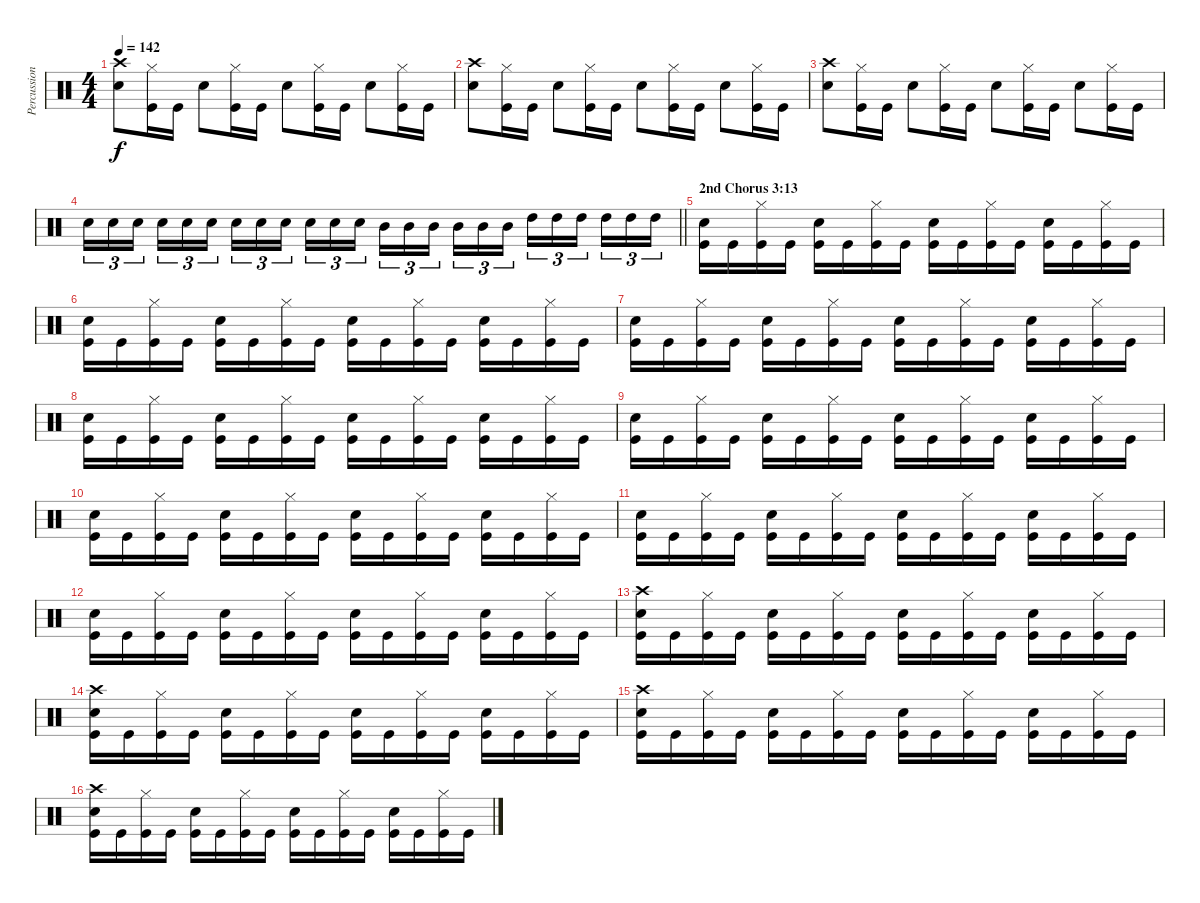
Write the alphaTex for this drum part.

\track ("Percussion" "Percussion") {instrument percussion}
\staff {score}
\articulation defaults
\ts (4 4)
\tempo 142
\clef neutral
\ks c
("Crash high (hit)" "Snare (hit) 2").8{dy f} ("Hi-Hat (closed)" "Kick (hit)").16 "Kick (hit)".16 "Snare (hit) 2".8 ("Hi-Hat (closed)" "Kick (hit)").16 "Kick (hit)".16 "Snare (hit) 2".8 ("Hi-Hat (closed)" "Kick (hit)").16 "Kick (hit)".16 "Snare (hit) 2".8 ("Hi-Hat (closed)" "Kick (hit)").16 "Kick (hit)".16 |
("Crash high (hit)" "Snare (hit) 2").8 ("Hi-Hat (closed)" "Kick (hit)").16 "Kick (hit)".16 "Snare (hit) 2".8 ("Hi-Hat (closed)" "Kick (hit)").16 "Kick (hit)".16 "Snare (hit) 2".8 ("Hi-Hat (closed)" "Kick (hit)").16 "Kick (hit)".16 "Snare (hit) 2".8 ("Hi-Hat (closed)" "Kick (hit)").16 "Kick (hit)".16 |
("Crash high (hit)" "Snare (hit) 2").8 ("Hi-Hat (closed)" "Kick (hit)").16 "Kick (hit)".16 "Snare (hit) 2".8 ("Hi-Hat (closed)" "Kick (hit)").16 "Kick (hit)".16 "Snare (hit) 2".8 ("Hi-Hat (closed)" "Kick (hit)").16 "Kick (hit)".16 "Snare (hit) 2".8 ("Hi-Hat (closed)" "Kick (hit)").16 "Kick (hit)".16 |
\barLineRight lightlight "Snare (hit) 2".16{tu (3 2)} "Snare (hit) 2".16{tu (3 2)} "Snare (hit) 2".16{tu (3 2) beam splitsecondary} "Snare (hit) 2".16{tu (3 2)} "Snare (hit) 2".16{tu (3 2)} "Snare (hit) 2".16{tu (3 2)} "Snare (hit) 2".16{tu (3 2)} "Snare (hit) 2".16{tu (3 2)} "Snare (hit) 2".16{tu (3 2) beam splitsecondary} "Snare (hit) 2".16{tu (3 2)} "Snare (hit) 2".16{tu (3 2)} "Snare (hit) 2".16{tu (3 2)} "Mid Tom (hit)".16{tu (3 2)} "Mid Tom (hit)".16{tu (3 2)} "Mid Tom (hit)".16{tu (3 2) beam splitsecondary} "Mid Tom (hit)".16{tu (3 2)} "Mid Tom (hit)".16{tu (3 2)} "Mid Tom (hit)".16{tu (3 2)} "High Tom (hit)".16{tu (3 2)} "High Tom (hit)".16{tu (3 2)} "High Tom (hit)".16{tu (3 2) beam splitsecondary} "High Tom (hit)".16{tu (3 2)} "High Tom (hit)".16{tu (3 2)} "High Tom (hit)".16{tu (3 2)}
|
\section ("" "2nd Chorus 3:13")
("Snare (hit) 2" "Kick (hit)").16 "Kick (hit)".16 ("Hi-Hat (closed)" "Kick (hit)").16 "Kick (hit)".16 ("Snare (hit) 2" "Kick (hit)").16 "Kick (hit)".16 ("Hi-Hat (closed)" "Kick (hit)").16 "Kick (hit)".16 ("Snare (hit) 2" "Kick (hit)").16 "Kick (hit)".16 ("Hi-Hat (closed)" "Kick (hit)").16 "Kick (hit)".16 ("Snare (hit) 2" "Kick (hit)").16 "Kick (hit)".16 ("Hi-Hat (closed)" "Kick (hit)").16 "Kick (hit)".16 |
("Snare (hit) 2" "Kick (hit)").16 "Kick (hit)".16 ("Hi-Hat (closed)" "Kick (hit)").16 "Kick (hit)".16 ("Snare (hit) 2" "Kick (hit)").16 "Kick (hit)".16 ("Hi-Hat (closed)" "Kick (hit)").16 "Kick (hit)".16 ("Snare (hit) 2" "Kick (hit)").16 "Kick (hit)".16 ("Hi-Hat (closed)" "Kick (hit)").16 "Kick (hit)".16 ("Snare (hit) 2" "Kick (hit)").16 "Kick (hit)".16 ("Hi-Hat (closed)" "Kick (hit)").16 "Kick (hit)".16 |
("Snare (hit) 2" "Kick (hit)").16 "Kick (hit)".16 ("Hi-Hat (closed)" "Kick (hit)").16 "Kick (hit)".16 ("Snare (hit) 2" "Kick (hit)").16 "Kick (hit)".16 ("Hi-Hat (closed)" "Kick (hit)").16 "Kick (hit)".16 ("Snare (hit) 2" "Kick (hit)").16 "Kick (hit)".16 ("Hi-Hat (closed)" "Kick (hit)").16 "Kick (hit)".16 ("Snare (hit) 2" "Kick (hit)").16 "Kick (hit)".16 ("Hi-Hat (closed)" "Kick (hit)").16 "Kick (hit)".16 |
("Snare (hit) 2" "Kick (hit)").16 "Kick (hit)".16 ("Hi-Hat (closed)" "Kick (hit)").16 "Kick (hit)".16 ("Snare (hit) 2" "Kick (hit)").16 "Kick (hit)".16 ("Hi-Hat (closed)" "Kick (hit)").16 "Kick (hit)".16 ("Snare (hit) 2" "Kick (hit)").16 "Kick (hit)".16 ("Hi-Hat (closed)" "Kick (hit)").16 "Kick (hit)".16 ("Snare (hit) 2" "Kick (hit)").16 "Kick (hit)".16 ("Hi-Hat (closed)" "Kick (hit)").16 "Kick (hit)".16 |
("Snare (hit) 2" "Kick (hit)").16 "Kick (hit)".16 ("Hi-Hat (closed)" "Kick (hit)").16 "Kick (hit)".16 ("Snare (hit) 2" "Kick (hit)").16 "Kick (hit)".16 ("Hi-Hat (closed)" "Kick (hit)").16 "Kick (hit)".16 ("Snare (hit) 2" "Kick (hit)").16 "Kick (hit)".16 ("Hi-Hat (closed)" "Kick (hit)").16 "Kick (hit)".16 ("Snare (hit) 2" "Kick (hit)").16 "Kick (hit)".16 ("Hi-Hat (closed)" "Kick (hit)").16 "Kick (hit)".16 |
("Snare (hit) 2" "Kick (hit)").16 "Kick (hit)".16 ("Hi-Hat (closed)" "Kick (hit)").16 "Kick (hit)".16 ("Snare (hit) 2" "Kick (hit)").16 "Kick (hit)".16 ("Hi-Hat (closed)" "Kick (hit)").16 "Kick (hit)".16 ("Snare (hit) 2" "Kick (hit)").16 "Kick (hit)".16 ("Hi-Hat (closed)" "Kick (hit)").16 "Kick (hit)".16 ("Snare (hit) 2" "Kick (hit)").16 "Kick (hit)".16 ("Hi-Hat (closed)" "Kick (hit)").16 "Kick (hit)".16 |
("Snare (hit) 2" "Kick (hit)").16 "Kick (hit)".16 ("Hi-Hat (closed)" "Kick (hit)").16 "Kick (hit)".16 ("Snare (hit) 2" "Kick (hit)").16 "Kick (hit)".16 ("Hi-Hat (closed)" "Kick (hit)").16 "Kick (hit)".16 ("Snare (hit) 2" "Kick (hit)").16 "Kick (hit)".16 ("Hi-Hat (closed)" "Kick (hit)").16 "Kick (hit)".16 ("Snare (hit) 2" "Kick (hit)").16 "Kick (hit)".16 ("Hi-Hat (closed)" "Kick (hit)").16 "Kick (hit)".16 |
("Snare (hit) 2" "Kick (hit)").16 "Kick (hit)".16 ("Hi-Hat (closed)" "Kick (hit)").16 "Kick (hit)".16 ("Snare (hit) 2" "Kick (hit)").16 "Kick (hit)".16 ("Hi-Hat (closed)" "Kick (hit)").16 "Kick (hit)".16 ("Snare (hit) 2" "Kick (hit)").16 "Kick (hit)".16 ("Hi-Hat (closed)" "Kick (hit)").16 "Kick (hit)".16 ("Snare (hit) 2" "Kick (hit)").16 "Kick (hit)".16 ("Hi-Hat (closed)" "Kick (hit)").16 "Kick (hit)".16 |
("Crash high (hit)" "Snare (hit) 2" "Kick (hit)").16 "Kick (hit)".16 ("Hi-Hat (closed)" "Kick (hit)").16 "Kick (hit)".16 ("Snare (hit) 2" "Kick (hit)").16 "Kick (hit)".16 ("Hi-Hat (closed)" "Kick (hit)").16 "Kick (hit)".16 ("Snare (hit) 2" "Kick (hit)").16 "Kick (hit)".16 ("Hi-Hat (closed)" "Kick (hit)").16 "Kick (hit)".16 ("Snare (hit) 2" "Kick (hit)").16 "Kick (hit)".16 ("Hi-Hat (closed)" "Kick (hit)").16 "Kick (hit)".16 |
("Crash high (hit)" "Snare (hit) 2" "Kick (hit)").16 "Kick (hit)".16 ("Hi-Hat (closed)" "Kick (hit)").16 "Kick (hit)".16 ("Snare (hit) 2" "Kick (hit)").16 "Kick (hit)".16 ("Hi-Hat (closed)" "Kick (hit)").16 "Kick (hit)".16 ("Snare (hit) 2" "Kick (hit)").16 "Kick (hit)".16 ("Hi-Hat (closed)" "Kick (hit)").16 "Kick (hit)".16 ("Snare (hit) 2" "Kick (hit)").16 "Kick (hit)".16 ("Hi-Hat (closed)" "Kick (hit)").16 "Kick (hit)".16 |
("Crash high (hit)" "Snare (hit) 2" "Kick (hit)").16 "Kick (hit)".16 ("Hi-Hat (closed)" "Kick (hit)").16 "Kick (hit)".16 ("Snare (hit) 2" "Kick (hit)").16 "Kick (hit)".16 ("Hi-Hat (closed)" "Kick (hit)").16 "Kick (hit)".16 ("Snare (hit) 2" "Kick (hit)").16 "Kick (hit)".16 ("Hi-Hat (closed)" "Kick (hit)").16 "Kick (hit)".16 ("Snare (hit) 2" "Kick (hit)").16 "Kick (hit)".16 ("Hi-Hat (closed)" "Kick (hit)").16 "Kick (hit)".16 |
("Crash high (hit)" "Snare (hit) 2" "Kick (hit)").16 "Kick (hit)".16 ("Hi-Hat (closed)" "Kick (hit)").16 "Kick (hit)".16 ("Snare (hit) 2" "Kick (hit)").16 "Kick (hit)".16 ("Hi-Hat (closed)" "Kick (hit)").16 "Kick (hit)".16 ("Snare (hit) 2" "Kick (hit)").16 "Kick (hit)".16 ("Hi-Hat (closed)" "Kick (hit)").16 "Kick (hit)".16 ("Snare (hit) 2" "Kick (hit)").16 "Kick (hit)".16 ("Hi-Hat (closed)" "Kick (hit)").16 "Kick (hit)".16
